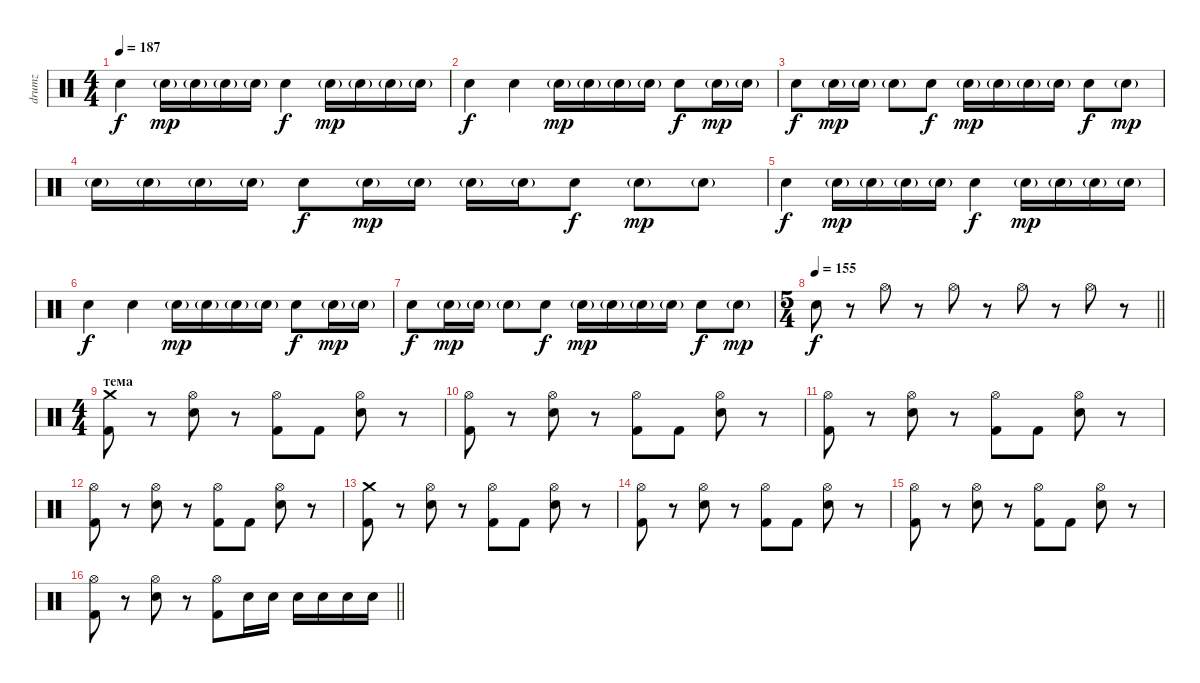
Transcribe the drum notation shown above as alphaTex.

\track ("drumz" "drumz") {instrument percussion}
\staff {score}
\articulation defaults
\ts (4 4)
\tempo 187
\clef neutral
\ks c "Electric Snare (hit)".4{dy f} "Electric Snare (hit)"{g}.16{dy mp} "Electric Snare (hit)"{g}.16 "Electric Snare (hit)"{g}.16 "Electric Snare (hit)"{g}.16 "Electric Snare (hit)".4{dy f} "Electric Snare (hit)"{g}.16{dy mp} "Electric Snare (hit)"{g}.16 "Electric Snare (hit)"{g}.16 "Electric Snare (hit)"{g}.16
|
"Electric Snare (hit)".4{dy f} "Electric Snare (hit)".4 "Electric Snare (hit)"{g}.16{dy mp} "Electric Snare (hit)"{g}.16 "Electric Snare (hit)"{g}.16 "Electric Snare (hit)"{g}.16 "Electric Snare (hit)".8{dy f} "Electric Snare (hit)"{g}.16{dy mp} "Electric Snare (hit)"{g}.16 |
"Electric Snare (hit)".8{dy f} "Electric Snare (hit)"{g}.16{dy mp} "Electric Snare (hit)"{g}.16 "Electric Snare (hit)"{g}.8 "Electric Snare (hit)".8{dy f} "Electric Snare (hit)"{g}.16{dy mp} "Electric Snare (hit)"{g}.16 "Electric Snare (hit)"{g}.16 "Electric Snare (hit)"{g}.16 "Electric Snare (hit)".8{dy f} "Electric Snare (hit)"{g}.8{dy mp} |
"Electric Snare (hit)"{g}.16 "Electric Snare (hit)"{g}.16 "Electric Snare (hit)"{g}.16 "Electric Snare (hit)"{g}.16 "Electric Snare (hit)".8{dy f} "Electric Snare (hit)"{g}.16{dy mp} "Electric Snare (hit)"{g}.16 "Electric Snare (hit)"{g}.16 "Electric Snare (hit)"{g}.16 "Electric Snare (hit)".8{dy f} "Electric Snare (hit)"{g}.8{dy mp} "Electric Snare (hit)"{g}.8 |
"Electric Snare (hit)".4{dy f} "Electric Snare (hit)"{g}.16{dy mp} "Electric Snare (hit)"{g}.16 "Electric Snare (hit)"{g}.16 "Electric Snare (hit)"{g}.16 "Electric Snare (hit)".4{dy f} "Electric Snare (hit)"{g}.16{dy mp} "Electric Snare (hit)"{g}.16 "Electric Snare (hit)"{g}.16 "Electric Snare (hit)"{g}.16 |
"Electric Snare (hit)".4{dy f} "Electric Snare (hit)".4 "Electric Snare (hit)"{g}.16{dy mp} "Electric Snare (hit)"{g}.16 "Electric Snare (hit)"{g}.16 "Electric Snare (hit)"{g}.16 "Electric Snare (hit)".8{dy f} "Electric Snare (hit)"{g}.16{dy mp} "Electric Snare (hit)"{g}.16 |
"Electric Snare (hit)".8{dy f} "Electric Snare (hit)"{g}.16{dy mp} "Electric Snare (hit)"{g}.16 "Electric Snare (hit)"{g}.8 "Electric Snare (hit)".8{dy f} "Electric Snare (hit)"{g}.16{dy mp} "Electric Snare (hit)"{g}.16 "Electric Snare (hit)"{g}.16 "Electric Snare (hit)"{g}.16 "Electric Snare (hit)".8{dy f} "Electric Snare (hit)"{g}.8{dy mp} |
\ts (5 4)
\tempo 155
\barLineRight lightlight "Electric Snare (hit)".8{dy f}
r.8 "Hi-Hat (open)".8 r.8 "Hi-Hat (open)".8 r.8 "Hi-Hat (open)".8 r.8 "Hi-Hat (open)".8 r.8 |
\ts (4 4)
\section ("" "тема")
("Crash medium (hit)" "Kick (hit) 2").8 r.8 ("Hi-Hat (open)" "Electric Snare (hit)").8 r.8 ("Hi-Hat (open)" "Kick (hit) 2").8 "Kick (hit) 2".8 ("Hi-Hat (open)" "Electric Snare (hit)").8 r.8 |
("Hi-Hat (open)" "Kick (hit) 2").8 r.8 ("Hi-Hat (open)" "Electric Snare (hit)").8 r.8 ("Hi-Hat (open)" "Kick (hit) 2").8 "Kick (hit) 2".8 ("Hi-Hat (open)" "Electric Snare (hit)").8 r.8 |
("Hi-Hat (open)" "Kick (hit) 2").8 r.8 ("Hi-Hat (open)" "Electric Snare (hit)").8 r.8 ("Hi-Hat (open)" "Kick (hit) 2").8 "Kick (hit) 2".8 ("Hi-Hat (open)" "Electric Snare (hit)").8 r.8 |
("Hi-Hat (open)" "Kick (hit) 2").8 r.8 ("Hi-Hat (open)" "Electric Snare (hit)").8 r.8 ("Hi-Hat (open)" "Kick (hit) 2").8 "Kick (hit) 2".8 ("Hi-Hat (open)" "Electric Snare (hit)").8 r.8 |
("Crash medium (hit)" "Kick (hit) 2").8 r.8 ("Hi-Hat (open)" "Electric Snare (hit)").8 r.8 ("Hi-Hat (open)" "Kick (hit) 2").8 "Kick (hit) 2".8 ("Hi-Hat (open)" "Electric Snare (hit)").8 r.8 |
("Hi-Hat (open)" "Kick (hit) 2").8 r.8 ("Hi-Hat (open)" "Electric Snare (hit)").8 r.8 ("Hi-Hat (open)" "Kick (hit) 2").8 "Kick (hit) 2".8 ("Hi-Hat (open)" "Electric Snare (hit)").8 r.8 |
("Hi-Hat (open)" "Kick (hit) 2").8 r.8 ("Hi-Hat (open)" "Electric Snare (hit)").8 r.8 ("Hi-Hat (open)" "Kick (hit) 2").8 "Kick (hit) 2".8 ("Hi-Hat (open)" "Electric Snare (hit)").8 r.8 |
\barLineRight lightlight
("Hi-Hat (open)" "Kick (hit) 2").8 r.8 ("Hi-Hat (open)" "Electric Snare (hit)").8 r.8 ("Hi-Hat (open)" "Kick (hit) 2").8 "Electric Snare (hit)".16 "Electric Snare (hit)".16 "Electric Snare (hit)".16 "Electric Snare (hit)".16 "Electric Snare (hit)".16 "Electric Snare (hit)".16
